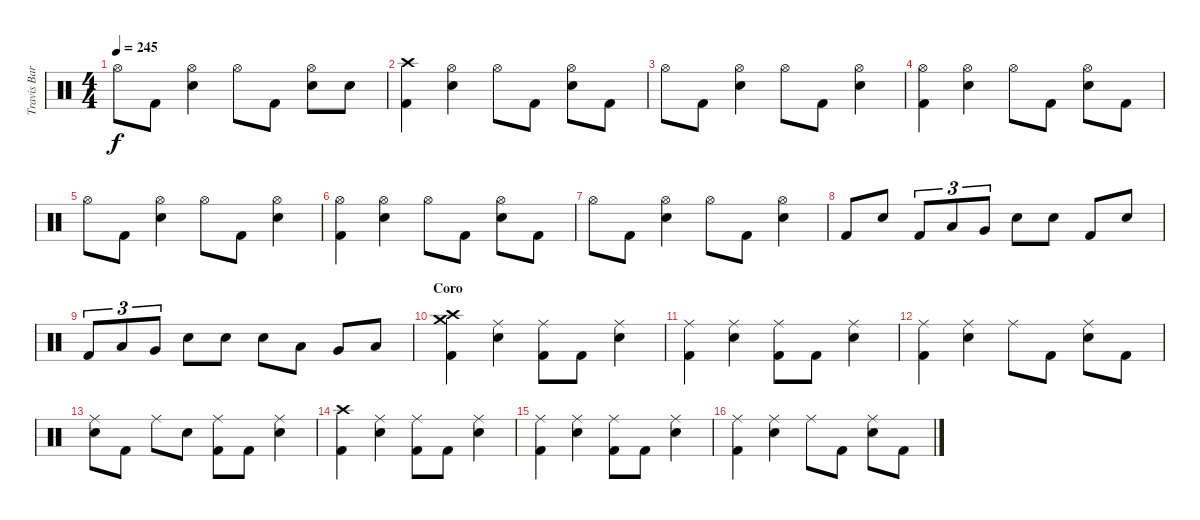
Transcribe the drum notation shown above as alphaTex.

\track ("Travis Barker - Batería" "Travis Bar") {instrument percussion}
\staff {score}
\articulation defaults
\ts (4 4)
\tempo 245
\clef neutral
\ks c "Hi-Hat (open)".8{dy f} "Kick (hit) 2".8
("Hi-Hat (open)" "Electric Snare (hit)").4 "Hi-Hat (open)".8 "Kick (hit) 2".8 ("Hi-Hat (open)" "Electric Snare (hit)").8 "Electric Snare (hit)".8 |
("Crash high (hit)" "Kick (hit) 2").4 ("Hi-Hat (open)" "Electric Snare (hit)").4 "Hi-Hat (open)".8 "Kick (hit) 2".8 ("Hi-Hat (open)" "Electric Snare (hit)").8 "Kick (hit) 2".8 |
"Hi-Hat (open)".8 "Kick (hit) 2".8 ("Hi-Hat (open)" "Electric Snare (hit)").4 "Hi-Hat (open)".8 "Kick (hit) 2".8 ("Hi-Hat (open)" "Electric Snare (hit)").4 |
("Hi-Hat (open)" "Kick (hit) 2").4 ("Hi-Hat (open)" "Electric Snare (hit)").4 "Hi-Hat (open)".8 "Kick (hit) 2".8 ("Hi-Hat (open)" "Electric Snare (hit)").8 "Kick (hit) 2".8 |
"Hi-Hat (open)".8 "Kick (hit) 2".8 ("Hi-Hat (open)" "Electric Snare (hit)").4 "Hi-Hat (open)".8 "Kick (hit) 2".8 ("Hi-Hat (open)" "Electric Snare (hit)").4 |
("Hi-Hat (open)" "Kick (hit) 2").4 ("Hi-Hat (open)" "Electric Snare (hit)").4 "Hi-Hat (open)".8 "Kick (hit) 2".8 ("Hi-Hat (open)" "Electric Snare (hit)").8 "Kick (hit) 2".8 |
"Hi-Hat (open)".8 "Kick (hit) 2".8 ("Hi-Hat (open)" "Electric Snare (hit)").4 "Hi-Hat (open)".8 "Kick (hit) 2".8 ("Hi-Hat (open)" "Electric Snare (hit)").4 |
"Kick (hit) 2".8 "Electric Snare (hit)".8 "Kick (hit) 2".8{tu (3 2)} "Low Tom (hit)".8{tu (3 2)} "Very Low Tom (hit)".8{tu (3 2)} "Electric Snare (hit)".8 "Electric Snare (hit)".8 "Kick (hit) 2".8 "Electric Snare (hit)".8 |
"Kick (hit) 2".8{tu (3 2)} "Low Tom (hit)".8{tu (3 2)} "Very Low Tom (hit)".8{tu (3 2)} "Electric Snare (hit)".8 "Electric Snare (hit)".8 "Electric Snare (hit)".8 "Low Tom (hit)".8 "Very Low Tom (hit)".8 "Low Floor Tom (hit)".8 |
\section ("" "Coro")
("Crash medium (hit)" "Crash high (hit)" "Kick (hit) 2").4 ("Ride (middle)" "Electric Snare (hit)").4 ("Ride (middle)" "Kick (hit) 2").8 "Kick (hit) 2".8 ("Ride (middle)" "Electric Snare (hit)").4 |
("Ride (middle)" "Kick (hit) 2").4 ("Ride (middle)" "Electric Snare (hit)").4 ("Ride (middle)" "Kick (hit) 2").8 "Kick (hit) 2".8 ("Ride (middle)" "Electric Snare (hit)").4 |
("Ride (middle)" "Kick (hit) 2").4 ("Ride (middle)" "Electric Snare (hit)").4 "Ride (middle)".8 "Kick (hit) 2".8 ("Ride (middle)" "Electric Snare (hit)").8 "Kick (hit) 2".8 |
("Ride (middle)" "Electric Snare (hit)").8 "Kick (hit) 2".8 "Ride (middle)".8 "Electric Snare (hit)".8 ("Ride (middle)" "Kick (hit) 2").8 "Kick (hit) 2".8 ("Ride (middle)" "Electric Snare (hit)").4 |
("Crash high (hit)" "Kick (hit) 2").4 ("Ride (middle)" "Electric Snare (hit)").4 ("Ride (middle)" "Kick (hit) 2").8 "Kick (hit) 2".8 ("Ride (middle)" "Electric Snare (hit)").4 |
("Ride (middle)" "Kick (hit) 2").4 ("Ride (middle)" "Electric Snare (hit)").4 ("Ride (middle)" "Kick (hit) 2").8 "Kick (hit) 2".8 ("Ride (middle)" "Electric Snare (hit)").4 |
("Ride (middle)" "Kick (hit) 2").4 ("Ride (middle)" "Electric Snare (hit)").4 "Ride (middle)".8 "Kick (hit) 2".8 ("Ride (middle)" "Electric Snare (hit)").8 "Kick (hit) 2".8
